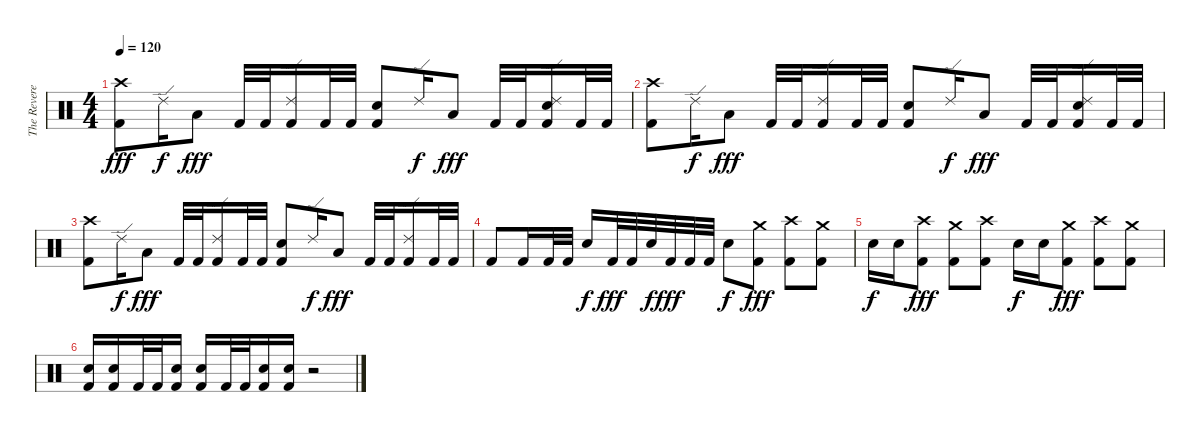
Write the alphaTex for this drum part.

\track ("The Reverend" "The Revere") {instrument percussion}
\staff {score}
\articulation defaults
\ts (4 4)
\tempo 120
\clef neutral
\ks c
("Crash high (hit)" "Kick (hit) 2").8{dy fff} "Ride (edge) 2".16{dy f} "Low Tom (hit)".8{dy fff} "Kick (hit) 2".32 "Kick (hit) 2".32 ("Ride (edge) 2" "Kick (hit) 2").16 "Kick (hit) 2".32 "Kick (hit) 2".32 ("Electric Snare (hit)" "Kick (hit) 2").8 "Ride (edge) 2".16{dy f} "Low Tom (hit)".8{dy fff} "Kick (hit) 2".32 "Kick (hit) 2".32 ("Ride (edge) 2" "Electric Snare (hit)" "Kick (hit) 2").16 "Kick (hit) 2".32 "Kick (hit) 2".32 |
("Crash high (hit)" "Kick (hit) 2").8 "Ride (edge) 2".16{dy f} "Low Tom (hit)".8{dy fff} "Kick (hit) 2".32 "Kick (hit) 2".32 ("Ride (edge) 2" "Kick (hit) 2").16 "Kick (hit) 2".32 "Kick (hit) 2".32 ("Electric Snare (hit)" "Kick (hit) 2").8 "Ride (edge) 2".16{dy f} "Low Tom (hit)".8{dy fff} "Kick (hit) 2".32 "Kick (hit) 2".32 ("Ride (edge) 2" "Electric Snare (hit)" "Kick (hit) 2").16 "Kick (hit) 2".32 "Kick (hit) 2".32 |
("Crash high (hit)" "Kick (hit) 2").8 "Ride (edge) 2".16{dy f} "Low Tom (hit)".8{dy fff} "Kick (hit) 2".32 "Kick (hit) 2".32 ("Ride (edge) 2" "Kick (hit) 2").16 "Kick (hit) 2".32 "Kick (hit) 2".32 ("Electric Snare (hit)" "Kick (hit) 2").8 "Ride (edge) 2".16{dy f} "Low Tom (hit)".8{dy fff} "Kick (hit) 2".32 "Kick (hit) 2".32 ("Ride (edge) 2" "Kick (hit) 2").16 "Kick (hit) 2".32 "Kick (hit) 2".32 |
"Kick (hit) 2".8 "Kick (hit) 2".16 "Kick (hit) 2".32 "Kick (hit) 2".32 "Electric Snare (hit)".16{dy f} "Kick (hit) 2".32{dy fff} "Kick (hit) 2".32 "Electric Snare (hit)".32{dy f} "Kick (hit) 2".32{dy fff} "Kick (hit) 2".32 "Kick (hit) 2".32 "Electric Snare (hit)".8{dy f} ("Crash medium (hit)" "Kick (hit) 2").8{dy fff} ("Crash high (hit)" "Kick (hit) 2").8 ("Crash medium (hit)" "Kick (hit) 2").8 |
"Electric Snare (hit)".16{dy f} "Electric Snare (hit)".16 ("Crash high (hit)" "Kick (hit) 2").8{dy fff} ("Crash medium (hit)" "Kick (hit) 2").8 ("Crash high (hit)" "Kick (hit) 2").8 "Electric Snare (hit)".16{dy f} "Electric Snare (hit)".16 ("Crash medium (hit)" "Kick (hit) 2").8{dy fff} ("Crash high (hit)" "Kick (hit) 2").8 ("Crash medium (hit)" "Kick (hit) 2").8 |
("Electric Snare (hit)" "Kick (hit) 2").16 ("Electric Snare (hit)" "Kick (hit) 2").16 "Kick (hit) 2".32 "Kick (hit) 2".32 ("Electric Snare (hit)" "Kick (hit) 2").16 ("Electric Snare (hit)" "Kick (hit) 2").16 "Kick (hit) 2".32 "Kick (hit) 2".32 ("Electric Snare (hit)" "Kick (hit) 2").16 ("Electric Snare (hit)" "Kick (hit) 2").16 r.2
